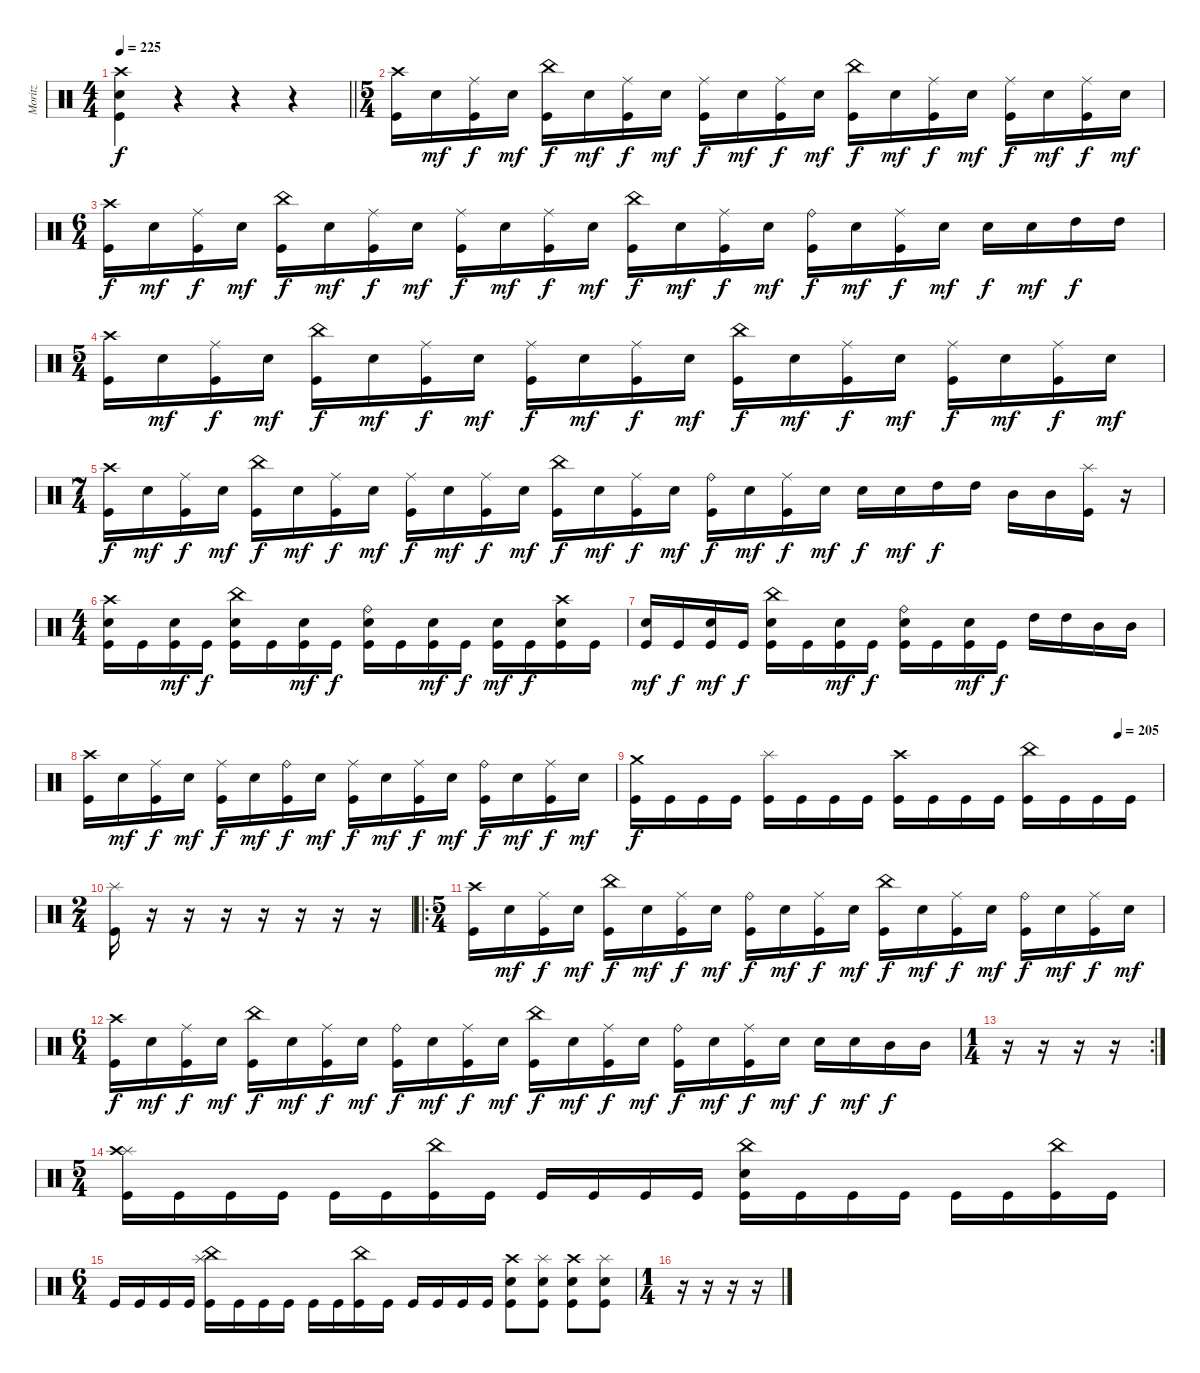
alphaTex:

\track ("Moritz" "Moritz") {instrument percussion}
\staff {score}
\articulation defaults
\ts (4 4)
\tempo 225
\clef neutral
\barLineRight lightlight
\ks c
("Crash high (hit)" "Snare (hit) 2" "Kick (hit)").4{dy f} r.4 r.4 r.4 |
\ts (5 4)
("Crash high (hit)" "Kick (hit)").16 "Snare (hit) 2".16{dy mf} ("Ride (middle)" "Kick (hit)").16{dy f} "Snare (hit) 2".16{dy mf} ("China (hit)" "Kick (hit)").16{dy f} "Snare (hit) 2".16{dy mf} ("Ride (middle)" "Kick (hit)").16{dy f} "Snare (hit) 2".16{dy mf} ("Ride (middle)" "Kick (hit)").16{dy f} "Snare (hit) 2".16{dy mf} ("Ride (middle)" "Kick (hit)").16{dy f} "Snare (hit) 2".16{dy mf} ("China (hit)" "Kick (hit)").16{dy f} "Snare (hit) 2".16{dy mf} ("Ride (middle)" "Kick (hit)").16{dy f} "Snare (hit) 2".16{dy mf} ("Ride (middle)" "Kick (hit)").16{dy f} "Snare (hit) 2".16{dy mf} ("Ride (middle)" "Kick (hit)").16{dy f} "Snare (hit) 2".16{dy mf} |
\ts (6 4)
("Crash high (hit)" "Kick (hit)").16{dy f} "Snare (hit) 2".16{dy mf} ("Ride (middle)" "Kick (hit)").16{dy f} "Snare (hit) 2".16{dy mf} ("China (hit)" "Kick (hit)").16{dy f} "Snare (hit) 2".16{dy mf} ("Ride (middle)" "Kick (hit)").16{dy f} "Snare (hit) 2".16{dy mf} ("Ride (middle)" "Kick (hit)").16{dy f} "Snare (hit) 2".16{dy mf} ("Ride (middle)" "Kick (hit)").16{dy f} "Snare (hit) 2".16{dy mf} ("China (hit)" "Kick (hit)").16{dy f} "Snare (hit) 2".16{dy mf} ("Ride (middle)" "Kick (hit)").16{dy f} "Snare (hit) 2".16{dy mf} ("Ride (bell)" "Kick (hit)").16{dy f} "Snare (hit) 2".16{dy mf} ("Ride (middle)" "Kick (hit)").16{dy f} "Snare (hit) 2".16{dy mf} "Snare (hit) 2".16{dy f} "Snare (hit) 2".16{dy mf} "High Tom (hit)".16{dy f} "High Tom (hit)".16 |
\ts (5 4)
("Crash high (hit)" "Kick (hit)").16 "Snare (hit) 2".16{dy mf} ("Ride (middle)" "Kick (hit)").16{dy f} "Snare (hit) 2".16{dy mf} ("China (hit)" "Kick (hit)").16{dy f} "Snare (hit) 2".16{dy mf} ("Ride (middle)" "Kick (hit)").16{dy f} "Snare (hit) 2".16{dy mf} ("Ride (middle)" "Kick (hit)").16{dy f} "Snare (hit) 2".16{dy mf} ("Ride (middle)" "Kick (hit)").16{dy f} "Snare (hit) 2".16{dy mf} ("China (hit)" "Kick (hit)").16{dy f} "Snare (hit) 2".16{dy mf} ("Ride (middle)" "Kick (hit)").16{dy f} "Snare (hit) 2".16{dy mf} ("Ride (middle)" "Kick (hit)").16{dy f} "Snare (hit) 2".16{dy mf} ("Ride (middle)" "Kick (hit)").16{dy f} "Snare (hit) 2".16{dy mf} |
\ts (7 4)
("Crash high (hit)" "Kick (hit)").16{dy f} "Snare (hit) 2".16{dy mf} ("Ride (middle)" "Kick (hit)").16{dy f} "Snare (hit) 2".16{dy mf} ("China (hit)" "Kick (hit)").16{dy f} "Snare (hit) 2".16{dy mf} ("Ride (middle)" "Kick (hit)").16{dy f} "Snare (hit) 2".16{dy mf} ("Ride (middle)" "Kick (hit)").16{dy f} "Snare (hit) 2".16{dy mf} ("Ride (middle)" "Kick (hit)").16{dy f} "Snare (hit) 2".16{dy mf} ("China (hit)" "Kick (hit)").16{dy f} "Snare (hit) 2".16{dy mf} ("Ride (middle)" "Kick (hit)").16{dy f} "Snare (hit) 2".16{dy mf} ("Ride (bell)" "Kick (hit)").16{dy f} "Snare (hit) 2".16{dy mf} ("Ride (middle)" "Kick (hit)").16{dy f} "Snare (hit) 2".16{dy mf} "Snare (hit) 2".16{dy f} "Snare (hit) 2".16{dy mf} "High Tom (hit)".16{dy f} "High Tom (hit)".16 "Mid Tom (hit)".16 "Mid Tom (hit)".16 ("Splash (hit)" "Kick (hit)").16 r.16 |
\ts (4 4)
("Crash high (hit)" "Snare (hit) 2" "Kick (hit)").16 "Kick (hit)".16 ("Snare (hit) 2" "Kick (hit)").16{dy mf} "Kick (hit)".16{dy f} ("China (hit)" "Snare (hit) 2" "Kick (hit)").16 "Kick (hit)".16 ("Snare (hit) 2" "Kick (hit)").16{dy mf} "Kick (hit)".16{dy f} ("Ride (bell)" "Snare (hit) 2" "Kick (hit)").16 "Kick (hit)".16 ("Snare (hit) 2" "Kick (hit)").16{dy mf} "Kick (hit)".16{dy f} ("Snare (hit) 2" "Kick (hit)").16{dy mf} "Kick (hit)".16{dy f} ("Crash high (hit)" "Snare (hit) 2" "Kick (hit)").16 "Kick (hit)".16 |
("Snare (hit) 2" "Kick (hit)").16{dy mf} "Kick (hit)".16{dy f} ("Snare (hit) 2" "Kick (hit)").16{dy mf} "Kick (hit)".16{dy f} ("China (hit)" "Snare (hit) 2" "Kick (hit)").16 "Kick (hit)".16 ("Snare (hit) 2" "Kick (hit)").16{dy mf} "Kick (hit)".16{dy f} ("Ride (bell)" "Snare (hit) 2" "Kick (hit)").16 "Kick (hit)".16 ("Snare (hit) 2" "Kick (hit)").16{dy mf} "Kick (hit)".16{dy f} "High Tom (hit)".16 "High Tom (hit)".16 "Mid Tom (hit)".16 "Mid Tom (hit)".16 |
("Crash high (hit)" "Kick (hit)").16 "Snare (hit) 2".16{dy mf} ("Ride (middle)" "Kick (hit)").16{dy f} "Snare (hit) 2".16{dy mf} ("Ride (middle)" "Kick (hit)").16{dy f} "Snare (hit) 2".16{dy mf} ("Ride (bell)" "Kick (hit)").16{dy f} "Snare (hit) 2".16{dy mf} ("Ride (middle)" "Kick (hit)").16{dy f} "Snare (hit) 2".16{dy mf} ("Ride (middle)" "Kick (hit)").16{dy f} "Snare (hit) 2".16{dy mf} ("Ride (bell)" "Kick (hit)").16{dy f} "Snare (hit) 2".16{dy mf} ("Ride (middle)" "Kick (hit)").16{dy f} "Snare (hit) 2".16{dy mf} |
\tempo (205 0.9166666666666666)
("Crash medium (hit)" "Kick (hit)").16{dy f} "Kick (hit)".16 "Kick (hit)".16 "Kick (hit)".16 ("Splash (hit)" "Kick (hit)").16 "Kick (hit)".16 "Kick (hit)".16 "Kick (hit)".16 ("Crash high (hit)" "Kick (hit)").16 "Kick (hit)".16 "Kick (hit)".16 "Kick (hit)".16 ("China (hit)" "Kick (hit)").16 "Kick (hit)".16 "Kick (hit)".16 "Kick (hit)".16 |
\ts (2 4)
("Splash (hit)" "Kick (hit)").16 r.16 r.16 r.16 r.16 r.16 r.16 r.16 |
\ro
\ts (5 4)
("Crash high (hit)" "Kick (hit)").16 "Snare (hit) 2".16{dy mf} ("Ride (middle)" "Kick (hit)").16{dy f} "Snare (hit) 2".16{dy mf} ("China (hit)" "Kick (hit)").16{dy f} "Snare (hit) 2".16{dy mf} ("Ride (middle)" "Kick (hit)").16{dy f} "Snare (hit) 2".16{dy mf} ("Ride (bell)" "Kick (hit)").16{dy f} "Snare (hit) 2".16{dy mf} ("Ride (middle)" "Kick (hit)").16{dy f} "Snare (hit) 2".16{dy mf} ("China (hit)" "Kick (hit)").16{dy f} "Snare (hit) 2".16{dy mf} ("Ride (middle)" "Kick (hit)").16{dy f} "Snare (hit) 2".16{dy mf} ("Ride (bell)" "Kick (hit)").16{dy f} "Snare (hit) 2".16{dy mf} ("Ride (middle)" "Kick (hit)").16{dy f} "Snare (hit) 2".16{dy mf} |
\ts (6 4)
("Crash high (hit)" "Kick (hit)").16{dy f} "Snare (hit) 2".16{dy mf} ("Ride (middle)" "Kick (hit)").16{dy f} "Snare (hit) 2".16{dy mf} ("China (hit)" "Kick (hit)").16{dy f} "Snare (hit) 2".16{dy mf} ("Ride (middle)" "Kick (hit)").16{dy f} "Snare (hit) 2".16{dy mf} ("Ride (bell)" "Kick (hit)").16{dy f} "Snare (hit) 2".16{dy mf} ("Ride (middle)" "Kick (hit)").16{dy f} "Snare (hit) 2".16{dy mf} ("China (hit)" "Kick (hit)").16{dy f} "Snare (hit) 2".16{dy mf} ("Ride (middle)" "Kick (hit)").16{dy f} "Snare (hit) 2".16{dy mf} ("Ride (bell)" "Kick (hit)").16{dy f} "Snare (hit) 2".16{dy mf} ("Ride (middle)" "Kick (hit)").16{dy f} "Snare (hit) 2".16{dy mf} "Snare (hit) 2".16{dy f} "Snare (hit) 2".16{dy mf} "Mid Tom (hit)".16{dy f} "Mid Tom (hit)".16 |
\rc 2
\ts (1 4)
r.16 r.16 r.16 r.16 |
\ts (5 4)
("Splash (hit)" "Crash high (hit)" "Kick (hit)").16 "Kick (hit)".16 "Kick (hit)".16 "Kick (hit)".16 "Kick (hit)".16 "Kick (hit)".16 ("China (hit)" "Kick (hit)").16 "Kick (hit)".16 "Kick (hit)".16 "Kick (hit)".16 "Kick (hit)".16 "Kick (hit)".16 ("China (hit)" "Snare (hit) 2" "Kick (hit)").16 "Kick (hit)".16 "Kick (hit)".16 "Kick (hit)".16 "Kick (hit)".16 "Kick (hit)".16 ("China (hit)" "Kick (hit)").16 "Kick (hit)".16 |
\ts (6 4)
"Kick (hit)".16 "Kick (hit)".16 "Kick (hit)".16 "Kick (hit)".16 ("Splash (hit)" "China (hit)" "Kick (hit)").16 "Kick (hit)".16 "Kick (hit)".16 "Kick (hit)".16 "Kick (hit)".16 "Kick (hit)".16 ("China (hit)" "Kick (hit)").16 "Kick (hit)".16 "Kick (hit)".16 "Kick (hit)".16 "Kick (hit)".16 "Kick (hit)".16 ("Snare (hit) 2" "Crash high (hit)" "Kick (hit)").8 ("Snare (hit) 2" "Splash (hit)" "Kick (hit)").8 ("Snare (hit) 2" "Crash high (hit)" "Kick (hit)").8 ("Snare (hit) 2" "Splash (hit)" "Kick (hit)").8 |
\ts (1 4)
r.16 r.16 r.16 r.16
